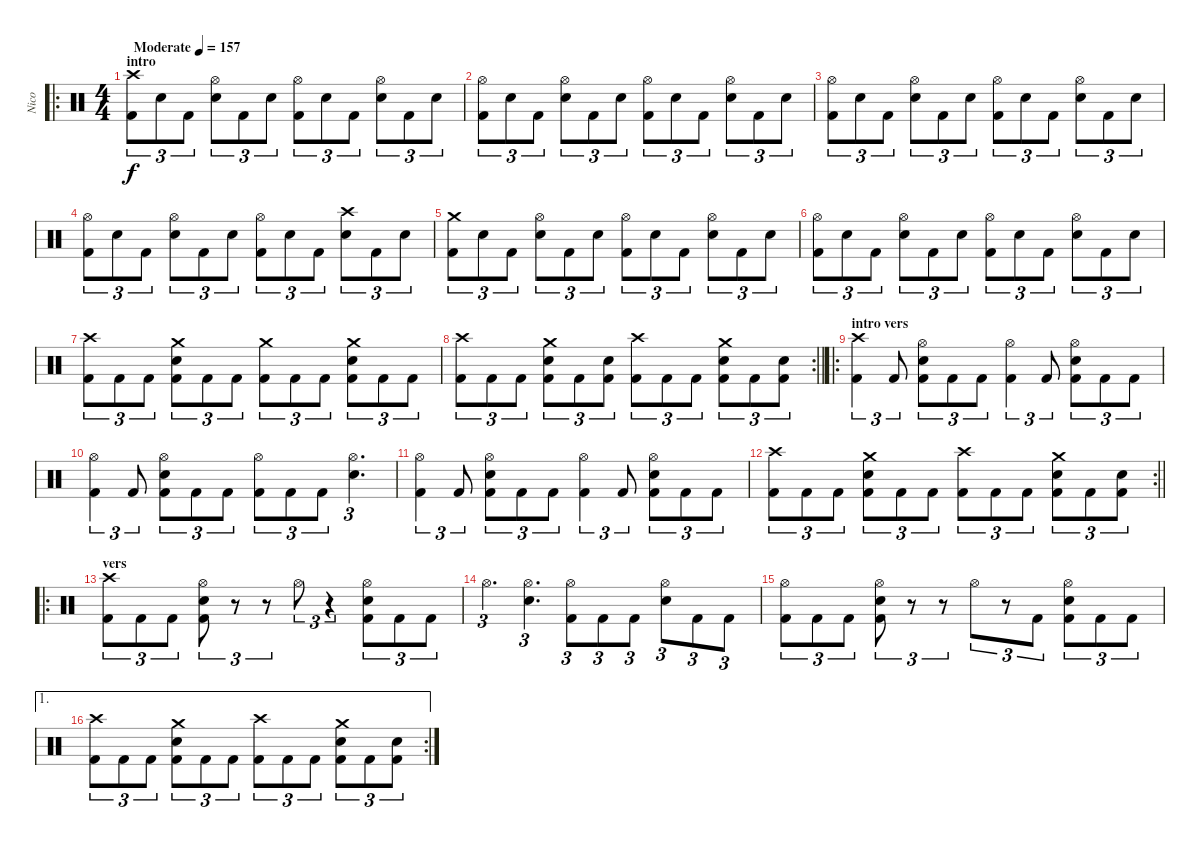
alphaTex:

\track ("Nico" "Nico") {instrument percussion}
\staff {score}
\articulation defaults
\ro
\ts (4 4)
\section ("" "intro")
\tempo (157 "Moderate")
\tempo 160
\tempo (157 "Moderate")
\clef neutral
\ks c
("Crash high (hit)" "Kick (hit) 2").8{tu (3 2) dy f} "Electric Snare (hit)".8{tu (3 2)} "Kick (hit) 2".8{tu (3 2)} ("Hi-Hat (open)" "Electric Snare (hit)").8{tu (3 2)} "Kick (hit) 2".8{tu (3 2)} "Electric Snare (hit)".8{tu (3 2)} ("Hi-Hat (open)" "Kick (hit) 2").8{tu (3 2)} "Electric Snare (hit)".8{tu (3 2)} "Kick (hit) 2".8{tu (3 2)} ("Hi-Hat (open)" "Electric Snare (hit)").8{tu (3 2)} "Kick (hit) 2".8{tu (3 2)} "Electric Snare (hit)".8{tu (3 2)} |
("Hi-Hat (open)" "Kick (hit) 2").8{tu (3 2)} "Electric Snare (hit)".8{tu (3 2)} "Kick (hit) 2".8{tu (3 2)} ("Hi-Hat (open)" "Electric Snare (hit)").8{tu (3 2)} "Kick (hit) 2".8{tu (3 2)} "Electric Snare (hit)".8{tu (3 2)} ("Hi-Hat (open)" "Kick (hit) 2").8{tu (3 2)} "Electric Snare (hit)".8{tu (3 2)} "Kick (hit) 2".8{tu (3 2)} ("Hi-Hat (open)" "Electric Snare (hit)").8{tu (3 2)} "Kick (hit) 2".8{tu (3 2)} "Electric Snare (hit)".8{tu (3 2)} |
("Hi-Hat (open)" "Kick (hit) 2").8{tu (3 2)} "Electric Snare (hit)".8{tu (3 2)} "Kick (hit) 2".8{tu (3 2)} ("Hi-Hat (open)" "Electric Snare (hit)").8{tu (3 2)} "Kick (hit) 2".8{tu (3 2)} "Electric Snare (hit)".8{tu (3 2)} ("Hi-Hat (open)" "Kick (hit) 2").8{tu (3 2)} "Electric Snare (hit)".8{tu (3 2)} "Kick (hit) 2".8{tu (3 2)} ("Hi-Hat (open)" "Electric Snare (hit)").8{tu (3 2)} "Kick (hit) 2".8{tu (3 2)} "Electric Snare (hit)".8{tu (3 2)} |
("Hi-Hat (open)" "Kick (hit) 2").8{tu (3 2)} "Electric Snare (hit)".8{tu (3 2)} "Kick (hit) 2".8{tu (3 2)} ("Hi-Hat (open)" "Electric Snare (hit)").8{tu (3 2)} "Kick (hit) 2".8{tu (3 2)} "Electric Snare (hit)".8{tu (3 2)} ("Hi-Hat (open)" "Kick (hit) 2").8{tu (3 2)} "Electric Snare (hit)".8{tu (3 2)} "Kick (hit) 2".8{tu (3 2)} ("Crash high (hit)" "Electric Snare (hit)").8{tu (3 2)} "Kick (hit) 2".8{tu (3 2)} "Electric Snare (hit)".8{tu (3 2)} |
("Crash medium (hit)" "Kick (hit) 2").8{tu (3 2)} "Electric Snare (hit)".8{tu (3 2)} "Kick (hit) 2".8{tu (3 2)} ("Hi-Hat (open)" "Electric Snare (hit)").8{tu (3 2)} "Kick (hit) 2".8{tu (3 2)} "Electric Snare (hit)".8{tu (3 2)} ("Hi-Hat (open)" "Kick (hit) 2").8{tu (3 2)} "Electric Snare (hit)".8{tu (3 2)} "Kick (hit) 2".8{tu (3 2)} ("Hi-Hat (open)" "Electric Snare (hit)").8{tu (3 2)} "Kick (hit) 2".8{tu (3 2)} "Electric Snare (hit)".8{tu (3 2)} |
("Hi-Hat (open)" "Kick (hit) 2").8{tu (3 2)} "Electric Snare (hit)".8{tu (3 2)} "Kick (hit) 2".8{tu (3 2)} ("Hi-Hat (open)" "Electric Snare (hit)").8{tu (3 2)} "Kick (hit) 2".8{tu (3 2)} "Electric Snare (hit)".8{tu (3 2)} ("Hi-Hat (open)" "Kick (hit) 2").8{tu (3 2)} "Electric Snare (hit)".8{tu (3 2)} "Kick (hit) 2".8{tu (3 2)} ("Hi-Hat (open)" "Electric Snare (hit)").8{tu (3 2)} "Kick (hit) 2".8{tu (3 2)} "Electric Snare (hit)".8{tu (3 2)} |
("Crash high (hit)" "Kick (hit) 2").8{tu (3 2)} "Kick (hit) 2".8{tu (3 2)} "Kick (hit) 2".8{tu (3 2)} ("Crash medium (hit)" "Electric Snare (hit)" "Kick (hit) 2").8{tu (3 2)} "Kick (hit) 2".8{tu (3 2)} "Kick (hit) 2".8{tu (3 2)} ("Crash medium (hit)" "Kick (hit) 2").8{tu (3 2)} "Kick (hit) 2".8{tu (3 2)} "Kick (hit) 2".8{tu (3 2)} ("Crash medium (hit)" "Electric Snare (hit)" "Kick (hit) 2").8{tu (3 2)} "Kick (hit) 2".8{tu (3 2)} "Kick (hit) 2".8{tu (3 2)} |
\rc 2
\barLineRight lightlight
("Crash high (hit)" "Kick (hit) 2").8{tu (3 2)} "Kick (hit) 2".8{tu (3 2)} "Kick (hit) 2".8{tu (3 2)} ("Crash medium (hit)" "Electric Snare (hit)" "Kick (hit) 2").8{tu (3 2)} "Kick (hit) 2".8{tu (3 2)} ("Electric Snare (hit)" "Kick (hit) 2").8{tu (3 2)} ("Crash high (hit)" "Kick (hit) 2").8{tu (3 2)} "Kick (hit) 2".8{tu (3 2)} "Kick (hit) 2".8{tu (3 2)} ("Crash medium (hit)" "Electric Snare (hit)" "Kick (hit) 2").8{tu (3 2)} "Kick (hit) 2".8{tu (3 2)} ("Electric Snare (hit)" "Kick (hit) 2").8{tu (3 2)} |
\ro
\section ("" "intro vers")
("Crash high (hit)" "Kick (hit) 2").4{tu (3 2)} "Kick (hit) 2".8{tu (3 2)} ("Hi-Hat (open)" "Electric Snare (hit)" "Kick (hit) 2").8{tu (3 2)} "Kick (hit) 2".8{tu (3 2)} "Kick (hit) 2".8{tu (3 2)} ("Hi-Hat (open)" "Kick (hit) 2").4{tu (3 2)} "Kick (hit) 2".8{tu (3 2)} ("Hi-Hat (open)" "Electric Snare (hit)" "Kick (hit) 2").8{tu (3 2)} "Kick (hit) 2".8{tu (3 2)} "Kick (hit) 2".8{tu (3 2)} |
("Hi-Hat (open)" "Kick (hit) 2").4{tu (3 2)} "Kick (hit) 2".8{tu (3 2)} ("Hi-Hat (open)" "Electric Snare (hit)" "Kick (hit) 2").8{tu (3 2)} "Kick (hit) 2".8{tu (3 2)} "Kick (hit) 2".8{tu (3 2)} ("Hi-Hat (open)" "Kick (hit) 2").8{tu (3 2)} "Kick (hit) 2".8{tu (3 2)} "Kick (hit) 2".8{tu (3 2)} ("Hi-Hat (open)" "Electric Snare (hit)").4{d tu (3 2)} |
("Hi-Hat (open)" "Kick (hit) 2").4{tu (3 2)} "Kick (hit) 2".8{tu (3 2)} ("Hi-Hat (open)" "Electric Snare (hit)" "Kick (hit) 2").8{tu (3 2)} "Kick (hit) 2".8{tu (3 2)} "Kick (hit) 2".8{tu (3 2)} ("Hi-Hat (open)" "Kick (hit) 2").4{tu (3 2)} "Kick (hit) 2".8{tu (3 2)} ("Hi-Hat (open)" "Electric Snare (hit)" "Kick (hit) 2").8{tu (3 2)} "Kick (hit) 2".8{tu (3 2)} "Kick (hit) 2".8{tu (3 2)} |
\rc 2
\barLineRight lightlight
("Crash high (hit)" "Kick (hit) 2").8{tu (3 2)} "Kick (hit) 2".8{tu (3 2)} "Kick (hit) 2".8{tu (3 2)} ("Crash medium (hit)" "Electric Snare (hit)" "Kick (hit) 2").8{tu (3 2)} "Kick (hit) 2".8{tu (3 2)} "Kick (hit) 2".8{tu (3 2)} ("Crash high (hit)" "Kick (hit) 2").8{tu (3 2)} "Kick (hit) 2".8{tu (3 2)} "Kick (hit) 2".8{tu (3 2)} ("Crash medium (hit)" "Electric Snare (hit)" "Kick (hit) 2").8{tu (3 2)} "Kick (hit) 2".8{tu (3 2)} ("Electric Snare (hit)" "Kick (hit) 2").8{tu (3 2)} |
\ro
\section ("" "vers")
("Crash high (hit)" "Kick (hit) 2").8{tu (3 2)} "Kick (hit) 2".8{tu (3 2)} "Kick (hit) 2".8{tu (3 2)} ("Hi-Hat (open)" "Electric Snare (hit)" "Kick (hit) 2").8{tu (3 2)} r.8{tu (3 2)} r.8{tu (3 2)} "Hi-Hat (open)".8{tu (3 2)} r.4{tu (3 2)} ("Hi-Hat (open)" "Electric Snare (hit)" "Kick (hit) 2").8{tu (3 2)} "Kick (hit) 2".8{tu (3 2)} "Kick (hit) 2".8{tu (3 2)} |
"Hi-Hat (open)".4{d tu (3 2)} ("Hi-Hat (open)" "Electric Snare (hit)").4{d tu (3 2)} ("Hi-Hat (open)" "Kick (hit) 2").8{tu (3 2)} "Kick (hit) 2".8{tu (3 2)} "Kick (hit) 2".8{tu (3 2)} ("Hi-Hat (open)" "Electric Snare (hit)").8{tu (3 2)} "Kick (hit) 2".8{tu (3 2)} "Kick (hit) 2".8{tu (3 2)} |
("Hi-Hat (open)" "Kick (hit) 2").8{tu (3 2)} "Kick (hit) 2".8{tu (3 2)} "Kick (hit) 2".8{tu (3 2)} ("Hi-Hat (open)" "Electric Snare (hit)" "Kick (hit) 2").8{tu (3 2)} r.8{tu (3 2)} r.8{tu (3 2)} "Hi-Hat (open)".8{tu (3 2)} r.8{tu (3 2)} "Kick (hit) 2".8{tu (3 2)} ("Hi-Hat (open)" "Electric Snare (hit)" "Kick (hit) 2").8{tu (3 2)} "Kick (hit) 2".8{tu (3 2)} "Kick (hit) 2".8{tu (3 2)} |
\ae 1
\rc 2
("Crash high (hit)" "Kick (hit) 2").8{tu (3 2)} "Kick (hit) 2".8{tu (3 2)} "Kick (hit) 2".8{tu (3 2)} ("Crash medium (hit)" "Electric Snare (hit)" "Kick (hit) 2").8{tu (3 2)} "Kick (hit) 2".8{tu (3 2)} "Kick (hit) 2".8{tu (3 2)} ("Crash high (hit)" "Kick (hit) 2").8{tu (3 2)} "Kick (hit) 2".8{tu (3 2)} "Kick (hit) 2".8{tu (3 2)} ("Crash medium (hit)" "Electric Snare (hit)" "Kick (hit) 2").8{tu (3 2)} "Kick (hit) 2".8{tu (3 2)} ("Electric Snare (hit)" "Kick (hit) 2").8{tu (3 2)}
